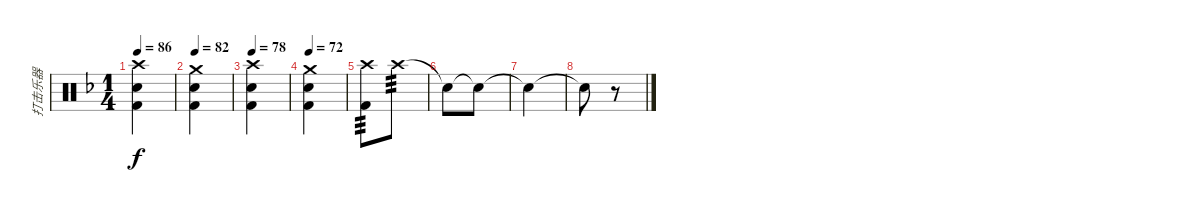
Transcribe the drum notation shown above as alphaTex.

\track ("打击乐器" "打击乐器") {instrument percussion}
\staff {score}
\articulation defaults
\ts (1 4)
\tempo 86
\clef neutral
\ks f
("Crash high (hit)" "Snare (hit) 2" "Kick (hit) 2").4{dy f} |
\tempo 82
("Crash medium (hit)" "Snare (hit) 2" "Kick (hit) 2").4 |
\tempo 78
("Crash high (hit)" "Snare (hit) 2" "Kick (hit) 2").4 |
\tempo 72
("Crash medium (hit)" "Snare (hit) 2" "Kick (hit) 2").4 |
("Crash high (hit)" "Kick (hit) 2").8{tp 3} "Crash high (hit)".8{tp 3} |
"Snare (hit)"{t}.8 "Snare (hit)"{t}.8 |
"Snare (hit)"{t}.4 |
"Snare (hit)"{t}.8 r.8
